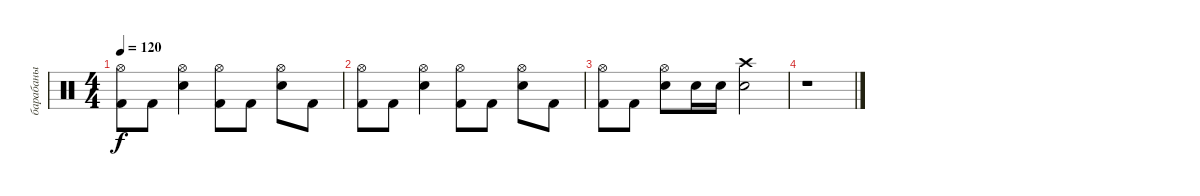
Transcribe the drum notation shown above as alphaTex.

\track ("барабаны" "барабаны") {instrument percussion}
\staff {score}
\articulation defaults
\ts (4 4)
\tempo 120
\clef neutral
\ks c
("Hi-Hat (open)" "Kick (hit) 2").8{dy f} "Kick (hit) 2".8 ("Hi-Hat (open)" "Snare (hit) 2").4 ("Hi-Hat (open)" "Kick (hit) 2").8 "Kick (hit) 2".8 ("Hi-Hat (open)" "Snare (hit) 2").8 "Kick (hit) 2".8 |
("Hi-Hat (open)" "Kick (hit) 2").8 "Kick (hit) 2".8 ("Hi-Hat (open)" "Snare (hit) 2").4 ("Hi-Hat (open)" "Kick (hit) 2").8 "Kick (hit) 2".8 ("Hi-Hat (open)" "Snare (hit) 2").8 "Kick (hit) 2".8 |
("Hi-Hat (open)" "Kick (hit) 2").8 "Kick (hit) 2".8 ("Hi-Hat (open)" "Snare (hit) 2").8 "Snare (hit) 2".16 "Snare (hit) 2".16 ("Crash high (hit)" "Snare (hit) 2").2 |
r.1
